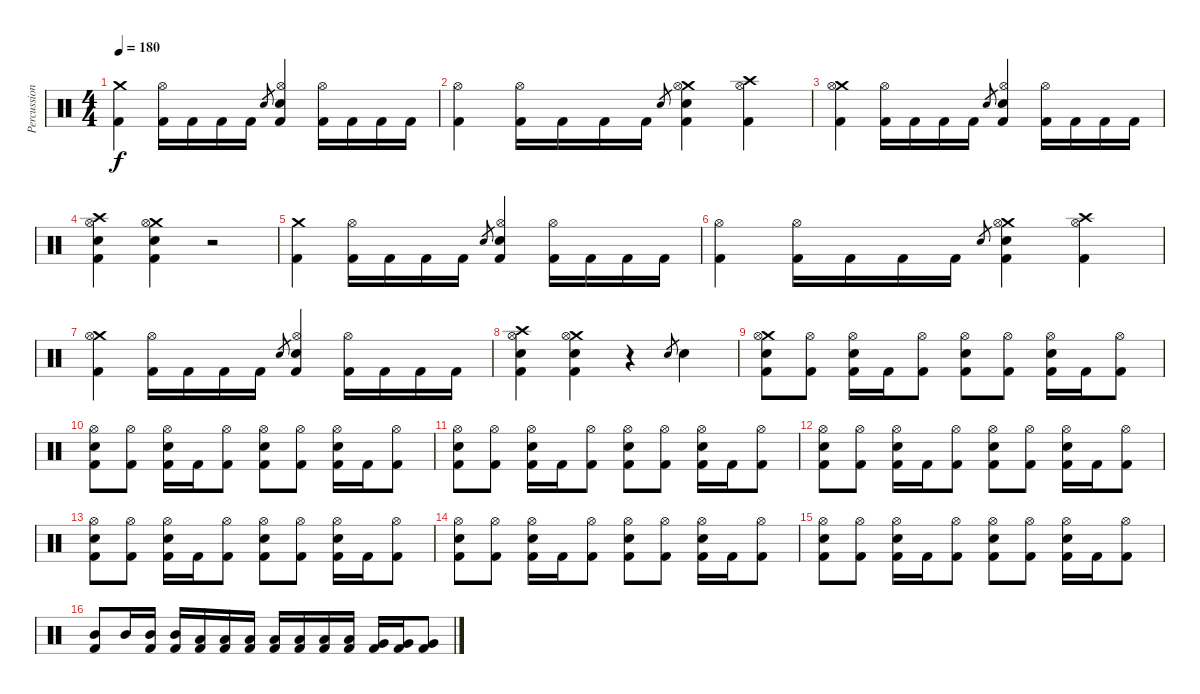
\track ("Percussion" "Percussion") {instrument percussion}
\staff {score}
\articulation defaults
\ts (4 4)
\tempo 180
\clef neutral
\ks c
("Crash medium (hit)" "Kick (hit) 2").4{dy f} ("Hi-Hat (open)" "Kick (hit) 2").16 "Kick (hit) 2".16 "Kick (hit) 2".16 "Kick (hit) 2".16 "Electric Snare (hit)".8{gr} ("Hi-Hat (open)" "Electric Snare (hit)" "Kick (hit) 2").4 ("Hi-Hat (open)" "Kick (hit) 2").16 "Kick (hit) 2".16 "Kick (hit) 2".16 "Kick (hit) 2".16 |
("Hi-Hat (open)" "Kick (hit) 2").4 ("Hi-Hat (open)" "Kick (hit) 2").16 "Kick (hit) 2".16 "Kick (hit) 2".16 "Kick (hit) 2".16 "Electric Snare (hit)".8{gr} ("Crash medium (hit)" "Hi-Hat (open)" "Electric Snare (hit)" "Kick (hit) 2").4 ("Crash high (hit)" "Hi-Hat (open)" "Kick (hit) 2").4 |
("Crash medium (hit)" "Hi-Hat (open)" "Kick (hit) 2").4 ("Hi-Hat (open)" "Kick (hit) 2").16 "Kick (hit) 2".16 "Kick (hit) 2".16 "Kick (hit) 2".16 "Electric Snare (hit)".8{gr} ("Hi-Hat (open)" "Electric Snare (hit)" "Kick (hit) 2").4 ("Hi-Hat (open)" "Kick (hit) 2").16 "Kick (hit) 2".16 "Kick (hit) 2".16 "Kick (hit) 2".16 |
("Crash high (hit)" "Hi-Hat (open)" "Electric Snare (hit)" "Kick (hit) 2").4 ("Crash medium (hit)" "Hi-Hat (open)" "Electric Snare (hit)" "Kick (hit) 2").4 r.2 |
("Crash medium (hit)" "Kick (hit) 2").4 ("Hi-Hat (open)" "Kick (hit) 2").16 "Kick (hit) 2".16 "Kick (hit) 2".16 "Kick (hit) 2".16 "Electric Snare (hit)".8{gr} ("Hi-Hat (open)" "Electric Snare (hit)" "Kick (hit) 2").4 ("Hi-Hat (open)" "Kick (hit) 2").16 "Kick (hit) 2".16 "Kick (hit) 2".16 "Kick (hit) 2".16 |
("Hi-Hat (open)" "Kick (hit) 2").4 ("Hi-Hat (open)" "Kick (hit) 2").16 "Kick (hit) 2".16 "Kick (hit) 2".16 "Kick (hit) 2".16 "Electric Snare (hit)".8{gr} ("Crash medium (hit)" "Hi-Hat (open)" "Electric Snare (hit)" "Kick (hit) 2").4 ("Crash high (hit)" "Hi-Hat (open)" "Kick (hit) 2").4 |
("Crash medium (hit)" "Hi-Hat (open)" "Kick (hit) 2").4 ("Hi-Hat (open)" "Kick (hit) 2").16 "Kick (hit) 2".16 "Kick (hit) 2".16 "Kick (hit) 2".16 "Electric Snare (hit)".8{gr} ("Hi-Hat (open)" "Electric Snare (hit)" "Kick (hit) 2").4 ("Hi-Hat (open)" "Kick (hit) 2").16 "Kick (hit) 2".16 "Kick (hit) 2".16 "Kick (hit) 2".16 |
("Crash high (hit)" "Hi-Hat (open)" "Electric Snare (hit)" "Kick (hit) 2").4 ("Crash medium (hit)" "Hi-Hat (open)" "Electric Snare (hit)" "Kick (hit) 2").4 r.4 "Electric Snare (hit)".8{gr} "Electric Snare (hit)".4 |
("Crash medium (hit)" "Hi-Hat (open)" "Electric Snare (hit)" "Kick (hit) 2").8 ("Hi-Hat (open)" "Kick (hit) 2").8 ("Hi-Hat (open)" "Electric Snare (hit)" "Kick (hit) 2").16 "Kick (hit) 2".16 ("Hi-Hat (open)" "Kick (hit) 2").8 ("Hi-Hat (open)" "Electric Snare (hit)" "Kick (hit) 2").8 ("Hi-Hat (open)" "Kick (hit) 2").8 ("Hi-Hat (open)" "Electric Snare (hit)" "Kick (hit) 2").16 "Kick (hit) 2".16 ("Hi-Hat (open)" "Kick (hit) 2").8 |
("Hi-Hat (open)" "Electric Snare (hit)" "Kick (hit) 2").8 ("Hi-Hat (open)" "Kick (hit) 2").8 ("Hi-Hat (open)" "Electric Snare (hit)" "Kick (hit) 2").16 "Kick (hit) 2".16 ("Hi-Hat (open)" "Kick (hit) 2").8 ("Hi-Hat (open)" "Electric Snare (hit)" "Kick (hit) 2").8 ("Hi-Hat (open)" "Kick (hit) 2").8 ("Hi-Hat (open)" "Electric Snare (hit)" "Kick (hit) 2").16 "Kick (hit) 2".16 ("Hi-Hat (open)" "Kick (hit) 2").8 |
("Hi-Hat (open)" "Electric Snare (hit)" "Kick (hit) 2").8 ("Hi-Hat (open)" "Kick (hit) 2").8 ("Hi-Hat (open)" "Electric Snare (hit)" "Kick (hit) 2").16 "Kick (hit) 2".16 ("Hi-Hat (open)" "Kick (hit) 2").8 ("Hi-Hat (open)" "Electric Snare (hit)" "Kick (hit) 2").8 ("Hi-Hat (open)" "Kick (hit) 2").8 ("Hi-Hat (open)" "Electric Snare (hit)" "Kick (hit) 2").16 "Kick (hit) 2".16 ("Hi-Hat (open)" "Kick (hit) 2").8 |
("Hi-Hat (open)" "Electric Snare (hit)" "Kick (hit) 2").8 ("Hi-Hat (open)" "Kick (hit) 2").8 ("Hi-Hat (open)" "Electric Snare (hit)" "Kick (hit) 2").16 "Kick (hit) 2".16 ("Hi-Hat (open)" "Kick (hit) 2").8 ("Hi-Hat (open)" "Electric Snare (hit)" "Kick (hit) 2").8 ("Hi-Hat (open)" "Kick (hit) 2").8 ("Hi-Hat (open)" "Electric Snare (hit)" "Kick (hit) 2").16 "Kick (hit) 2".16 ("Hi-Hat (open)" "Kick (hit) 2").8 |
("Hi-Hat (open)" "Electric Snare (hit)" "Kick (hit) 2").8 ("Hi-Hat (open)" "Kick (hit) 2").8 ("Hi-Hat (open)" "Electric Snare (hit)" "Kick (hit) 2").16 "Kick (hit) 2".16 ("Hi-Hat (open)" "Kick (hit) 2").8 ("Hi-Hat (open)" "Electric Snare (hit)" "Kick (hit) 2").8 ("Hi-Hat (open)" "Kick (hit) 2").8 ("Hi-Hat (open)" "Electric Snare (hit)" "Kick (hit) 2").16 "Kick (hit) 2".16 ("Hi-Hat (open)" "Kick (hit) 2").8 |
("Hi-Hat (open)" "Electric Snare (hit)" "Kick (hit) 2").8 ("Hi-Hat (open)" "Kick (hit) 2").8 ("Hi-Hat (open)" "Electric Snare (hit)" "Kick (hit) 2").16 "Kick (hit) 2".16 ("Hi-Hat (open)" "Kick (hit) 2").8 ("Hi-Hat (open)" "Electric Snare (hit)" "Kick (hit) 2").8 ("Hi-Hat (open)" "Kick (hit) 2").8 ("Hi-Hat (open)" "Electric Snare (hit)" "Kick (hit) 2").16 "Kick (hit) 2".16 ("Hi-Hat (open)" "Kick (hit) 2").8 |
("Hi-Hat (open)" "Electric Snare (hit)" "Kick (hit) 2").8 ("Hi-Hat (open)" "Kick (hit) 2").8 ("Hi-Hat (open)" "Electric Snare (hit)" "Kick (hit) 2").16 "Kick (hit) 2".16 ("Hi-Hat (open)" "Kick (hit) 2").8 ("Hi-Hat (open)" "Electric Snare (hit)" "Kick (hit) 2").8 ("Hi-Hat (open)" "Kick (hit) 2").8 ("Hi-Hat (open)" "Electric Snare (hit)" "Kick (hit) 2").16 "Kick (hit) 2".16 ("Hi-Hat (open)" "Kick (hit) 2").8 |
("Mid Tom (hit)" "Kick (hit) 2").8 "Mid Tom (hit)".16 ("Mid Tom (hit)" "Kick (hit) 2").16 ("Mid Tom (hit)" "Kick (hit) 2").16 ("Low Tom (hit)" "Kick (hit) 2").16 ("Low Tom (hit)" "Kick (hit) 2").16 ("Low Tom (hit)" "Kick (hit) 2").16 ("Low Tom (hit)" "Kick (hit) 2").16 ("Low Tom (hit)" "Kick (hit) 2").16 ("Low Tom (hit)" "Kick (hit) 2").16 ("Low Tom (hit)" "Kick (hit) 2").16 ("Very Low Tom (hit)" "Kick (hit) 2").16 ("Very Low Tom (hit)" "Kick (hit) 2").16 ("Very Low Tom (hit)" "Kick (hit) 2").8
